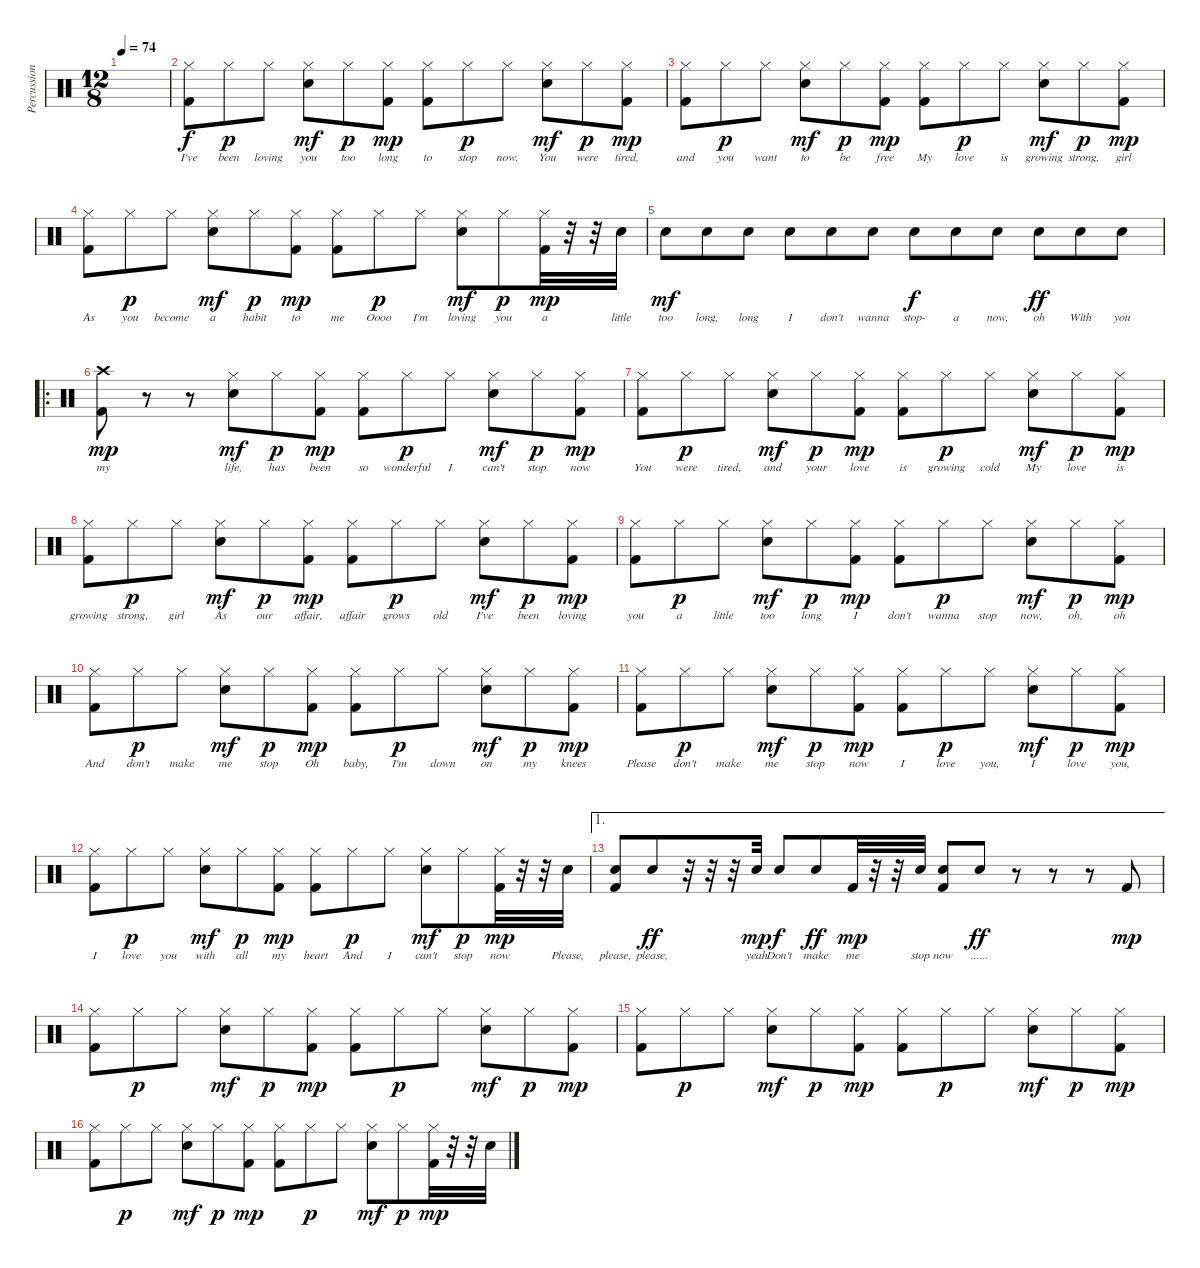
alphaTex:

\track ("Percussions" "Percussion") {instrument percussion}
\staff {score}
\articulation defaults
\ts (12 8)
\tempo 74
\clef neutral
\ks c
|
("Hi-Hat (closed)" "Kick (hit) 2").8{lyrics (0 "I've") lyrics (1 "") lyrics (2 "") lyrics (3 "") lyrics (4 "")} "Hi-Hat (closed)".8{lyrics (0 "been") lyrics (1 "") lyrics (2 "") lyrics (3 "") lyrics (4 "") dy p} "Hi-Hat (closed)".8{lyrics (0 "loving") lyrics (1 "") lyrics (2 "") lyrics (3 "") lyrics (4 "")} ("Hi-Hat (closed)" "Snare (hit) 2").8{lyrics (0 "you") lyrics (1 "") lyrics (2 "") lyrics (3 "") lyrics (4 "") dy mf} "Hi-Hat (closed)".8{lyrics (0 "too") lyrics (1 "") lyrics (2 "") lyrics (3 "") lyrics (4 "") dy p} ("Hi-Hat (closed)" "Kick (hit) 2").8{lyrics (0 "long") lyrics (1 "") lyrics (2 "") lyrics (3 "") lyrics (4 "") dy mp} ("Hi-Hat (closed)" "Kick (hit) 2").8{lyrics (0 "to") lyrics (1 "") lyrics (2 "") lyrics (3 "") lyrics (4 "")} "Hi-Hat (closed)".8{lyrics (0 "stop") lyrics (1 "") lyrics (2 "") lyrics (3 "") lyrics (4 "") dy p} "Hi-Hat (closed)".8{lyrics (0 "now.") lyrics (1 "") lyrics (2 "") lyrics (3 "") lyrics (4 "")} ("Hi-Hat (closed)" "Snare (hit) 2").8{lyrics (0 "You") lyrics (1 "") lyrics (2 "") lyrics (3 "") lyrics (4 "") dy mf} "Hi-Hat (closed)".8{lyrics (0 "were") lyrics (1 "") lyrics (2 "") lyrics (3 "") lyrics (4 "") dy p} ("Hi-Hat (closed)" "Kick (hit) 2").8{lyrics (0 "tired,") lyrics (1 "") lyrics (2 "") lyrics (3 "") lyrics (4 "") dy mp} |
("Hi-Hat (closed)" "Kick (hit) 2").8{lyrics (0 "and") lyrics (1 "") lyrics (2 "") lyrics (3 "") lyrics (4 "")} "Hi-Hat (closed)".8{lyrics (0 "you") lyrics (1 "") lyrics (2 "") lyrics (3 "") lyrics (4 "") dy p} "Hi-Hat (closed)".8{lyrics (0 "want") lyrics (1 "") lyrics (2 "") lyrics (3 "") lyrics (4 "")} ("Hi-Hat (closed)" "Snare (hit) 2").8{lyrics (0 "to") lyrics (1 "") lyrics (2 "") lyrics (3 "") lyrics (4 "") dy mf} "Hi-Hat (closed)".8{lyrics (0 "be") lyrics (1 "") lyrics (2 "") lyrics (3 "") lyrics (4 "") dy p} ("Hi-Hat (closed)" "Kick (hit) 2").8{lyrics (0 "free") lyrics (1 "") lyrics (2 "") lyrics (3 "") lyrics (4 "") dy mp} ("Hi-Hat (closed)" "Kick (hit) 2").8{lyrics (0 "My") lyrics (1 "") lyrics (2 "") lyrics (3 "") lyrics (4 "")} "Hi-Hat (closed)".8{lyrics (0 "love") lyrics (1 "") lyrics (2 "") lyrics (3 "") lyrics (4 "") dy p} "Hi-Hat (closed)".8{lyrics (0 "is") lyrics (1 "") lyrics (2 "") lyrics (3 "") lyrics (4 "")} ("Hi-Hat (closed)" "Snare (hit) 2").8{lyrics (0 "growing") lyrics (1 "") lyrics (2 "") lyrics (3 "") lyrics (4 "") dy mf} "Hi-Hat (closed)".8{lyrics (0 "strong,") lyrics (1 "") lyrics (2 "") lyrics (3 "") lyrics (4 "") dy p} ("Hi-Hat (closed)" "Kick (hit) 2").8{lyrics (0 "girl") lyrics (1 "") lyrics (2 "") lyrics (3 "") lyrics (4 "") dy mp} |
("Hi-Hat (closed)" "Kick (hit) 2").8{lyrics (0 "As") lyrics (1 "") lyrics (2 "") lyrics (3 "") lyrics (4 "")} "Hi-Hat (closed)".8{lyrics (0 "you") lyrics (1 "") lyrics (2 "") lyrics (3 "") lyrics (4 "") dy p} "Hi-Hat (closed)".8{lyrics (0 "become") lyrics (1 "") lyrics (2 "") lyrics (3 "") lyrics (4 "")} ("Hi-Hat (closed)" "Snare (hit) 2").8{lyrics (0 "a") lyrics (1 "") lyrics (2 "") lyrics (3 "") lyrics (4 "") dy mf} "Hi-Hat (closed)".8{lyrics (0 "habit") lyrics (1 "") lyrics (2 "") lyrics (3 "") lyrics (4 "") dy p} ("Hi-Hat (closed)" "Kick (hit) 2").8{lyrics (0 "to") lyrics (1 "") lyrics (2 "") lyrics (3 "") lyrics (4 "") dy mp} ("Hi-Hat (closed)" "Kick (hit) 2").8{lyrics (0 "me") lyrics (1 "") lyrics (2 "") lyrics (3 "") lyrics (4 "")} "Hi-Hat (closed)".8{lyrics (0 "Oooo") lyrics (1 "") lyrics (2 "") lyrics (3 "") lyrics (4 "") dy p} "Hi-Hat (closed)".8{lyrics (0 "I'm") lyrics (1 "") lyrics (2 "") lyrics (3 "") lyrics (4 "")} ("Hi-Hat (closed)" "Snare (hit) 2").8{lyrics (0 "loving") lyrics (1 "") lyrics (2 "") lyrics (3 "") lyrics (4 "") dy mf} "Hi-Hat (closed)".8{lyrics (0 "you") lyrics (1 "") lyrics (2 "") lyrics (3 "") lyrics (4 "") dy p} ("Hi-Hat (closed)" "Kick (hit) 2").32{lyrics (0 "a") lyrics (1 "") lyrics (2 "") lyrics (3 "") lyrics (4 "") dy mp} r.32 r.32 "Snare (hit) 2".32{lyrics (0 "little") lyrics (1 "") lyrics (2 "") lyrics (3 "") lyrics (4 "")} |
"Snare (hit) 2".8{lyrics (0 "too") lyrics (1 "") lyrics (2 "") lyrics (3 "") lyrics (4 "") dy mf} "Snare (hit) 2".8{lyrics (0 "long,") lyrics (1 "") lyrics (2 "") lyrics (3 "") lyrics (4 "")} "Snare (hit) 2".8{lyrics (0 "long") lyrics (1 "") lyrics (2 "") lyrics (3 "") lyrics (4 "")} "Snare (hit) 2".8{lyrics (0 "I") lyrics (1 "") lyrics (2 "") lyrics (3 "") lyrics (4 "")} "Snare (hit) 2".8{lyrics (0 "don't") lyrics (1 "") lyrics (2 "") lyrics (3 "") lyrics (4 "")} "Snare (hit) 2".8{lyrics (0 "wanna") lyrics (1 "") lyrics (2 "") lyrics (3 "") lyrics (4 "")} "Snare (hit) 2".8{lyrics (0 "stop-") lyrics (1 "") lyrics (2 "") lyrics (3 "") lyrics (4 "") dy f} "Snare (hit) 2".8{lyrics (0 "a") lyrics (1 "") lyrics (2 "") lyrics (3 "") lyrics (4 "")} "Snare (hit) 2".8{lyrics (0 "now,") lyrics (1 "") lyrics (2 "") lyrics (3 "") lyrics (4 "")} "Snare (hit) 2".8{lyrics (0 "oh") lyrics (1 "") lyrics (2 "") lyrics (3 "") lyrics (4 "") dy ff} "Snare (hit) 2".8{lyrics (0 "With") lyrics (1 "") lyrics (2 "") lyrics (3 "") lyrics (4 "")} "Snare (hit) 2".8{lyrics (0 "you") lyrics (1 "") lyrics (2 "") lyrics (3 "") lyrics (4 "")} |
\ro
("Crash high (hit)" "Kick (hit) 2").8{lyrics (0 "my") lyrics (1 "") lyrics (2 "") lyrics (3 "") lyrics (4 "") dy mp} r.8 r.8 ("Hi-Hat (closed)" "Snare (hit) 2").8{lyrics (0 "life,") lyrics (1 "") lyrics (2 "") lyrics (3 "") lyrics (4 "") dy mf} "Hi-Hat (closed)".8{lyrics (0 "has") lyrics (1 "") lyrics (2 "") lyrics (3 "") lyrics (4 "") dy p} ("Hi-Hat (closed)" "Kick (hit) 2").8{lyrics (0 "been") lyrics (1 "") lyrics (2 "") lyrics (3 "") lyrics (4 "") dy mp} ("Hi-Hat (closed)" "Kick (hit) 2").8{lyrics (0 "so") lyrics (1 "") lyrics (2 "") lyrics (3 "") lyrics (4 "")} "Hi-Hat (closed)".8{lyrics (0 "wonderful") lyrics (1 "") lyrics (2 "") lyrics (3 "") lyrics (4 "") dy p} "Hi-Hat (closed)".8{lyrics (0 "I") lyrics (1 "") lyrics (2 "") lyrics (3 "") lyrics (4 "")} ("Hi-Hat (closed)" "Snare (hit) 2").8{lyrics (0 "can't") lyrics (1 "") lyrics (2 "") lyrics (3 "") lyrics (4 "") dy mf} "Hi-Hat (closed)".8{lyrics (0 "stop") lyrics (1 "") lyrics (2 "") lyrics (3 "") lyrics (4 "") dy p} ("Hi-Hat (closed)" "Kick (hit) 2").8{lyrics (0 "now") lyrics (1 "") lyrics (2 "") lyrics (3 "") lyrics (4 "") dy mp} |
("Hi-Hat (closed)" "Kick (hit) 2").8{lyrics (0 "You") lyrics (1 "") lyrics (2 "") lyrics (3 "") lyrics (4 "")} "Hi-Hat (closed)".8{lyrics (0 "were") lyrics (1 "") lyrics (2 "") lyrics (3 "") lyrics (4 "") dy p} "Hi-Hat (closed)".8{lyrics (0 "tired,") lyrics (1 "") lyrics (2 "") lyrics (3 "") lyrics (4 "")} ("Hi-Hat (closed)" "Snare (hit) 2").8{lyrics (0 "and") lyrics (1 "") lyrics (2 "") lyrics (3 "") lyrics (4 "") dy mf} "Hi-Hat (closed)".8{lyrics (0 "your") lyrics (1 "") lyrics (2 "") lyrics (3 "") lyrics (4 "") dy p} ("Hi-Hat (closed)" "Kick (hit) 2").8{lyrics (0 "love") lyrics (1 "") lyrics (2 "") lyrics (3 "") lyrics (4 "") dy mp} ("Hi-Hat (closed)" "Kick (hit) 2").8{lyrics (0 "is") lyrics (1 "") lyrics (2 "") lyrics (3 "") lyrics (4 "")} "Hi-Hat (closed)".8{lyrics (0 "growing") lyrics (1 "") lyrics (2 "") lyrics (3 "") lyrics (4 "") dy p} "Hi-Hat (closed)".8{lyrics (0 "cold") lyrics (1 "") lyrics (2 "") lyrics (3 "") lyrics (4 "")} ("Hi-Hat (closed)" "Snare (hit) 2").8{lyrics (0 "My") lyrics (1 "") lyrics (2 "") lyrics (3 "") lyrics (4 "") dy mf} "Hi-Hat (closed)".8{lyrics (0 "love") lyrics (1 "") lyrics (2 "") lyrics (3 "") lyrics (4 "") dy p} ("Hi-Hat (closed)" "Kick (hit) 2").8{lyrics (0 "is") lyrics (1 "") lyrics (2 "") lyrics (3 "") lyrics (4 "") dy mp} |
("Hi-Hat (closed)" "Kick (hit) 2").8{lyrics (0 "growing") lyrics (1 "") lyrics (2 "") lyrics (3 "") lyrics (4 "")} "Hi-Hat (closed)".8{lyrics (0 "strong,") lyrics (1 "") lyrics (2 "") lyrics (3 "") lyrics (4 "") dy p} "Hi-Hat (closed)".8{lyrics (0 "girl") lyrics (1 "") lyrics (2 "") lyrics (3 "") lyrics (4 "")} ("Hi-Hat (closed)" "Snare (hit) 2").8{lyrics (0 "As") lyrics (1 "") lyrics (2 "") lyrics (3 "") lyrics (4 "") dy mf} "Hi-Hat (closed)".8{lyrics (0 "our") lyrics (1 "") lyrics (2 "") lyrics (3 "") lyrics (4 "") dy p} ("Hi-Hat (closed)" "Kick (hit) 2").8{lyrics (0 "affair,") lyrics (1 "") lyrics (2 "") lyrics (3 "") lyrics (4 "") dy mp} ("Hi-Hat (closed)" "Kick (hit) 2").8{lyrics (0 "affair") lyrics (1 "") lyrics (2 "") lyrics (3 "") lyrics (4 "")} "Hi-Hat (closed)".8{lyrics (0 "grows") lyrics (1 "") lyrics (2 "") lyrics (3 "") lyrics (4 "") dy p} "Hi-Hat (closed)".8{lyrics (0 "old") lyrics (1 "") lyrics (2 "") lyrics (3 "") lyrics (4 "")} ("Hi-Hat (closed)" "Snare (hit) 2").8{lyrics (0 "I've") lyrics (1 "") lyrics (2 "") lyrics (3 "") lyrics (4 "") dy mf} "Hi-Hat (closed)".8{lyrics (0 "been") lyrics (1 "") lyrics (2 "") lyrics (3 "") lyrics (4 "") dy p} ("Hi-Hat (closed)" "Kick (hit) 2").8{lyrics (0 "loving") lyrics (1 "") lyrics (2 "") lyrics (3 "") lyrics (4 "") dy mp} |
("Hi-Hat (closed)" "Kick (hit) 2").8{lyrics (0 "you") lyrics (1 "") lyrics (2 "") lyrics (3 "") lyrics (4 "")} "Hi-Hat (closed)".8{lyrics (0 "a") lyrics (1 "") lyrics (2 "") lyrics (3 "") lyrics (4 "") dy p} "Hi-Hat (closed)".8{lyrics (0 "little") lyrics (1 "") lyrics (2 "") lyrics (3 "") lyrics (4 "")} ("Hi-Hat (closed)" "Snare (hit) 2").8{lyrics (0 "too") lyrics (1 "") lyrics (2 "") lyrics (3 "") lyrics (4 "") dy mf} "Hi-Hat (closed)".8{lyrics (0 "long") lyrics (1 "") lyrics (2 "") lyrics (3 "") lyrics (4 "") dy p} ("Hi-Hat (closed)" "Kick (hit) 2").8{lyrics (0 "I") lyrics (1 "") lyrics (2 "") lyrics (3 "") lyrics (4 "") dy mp} ("Hi-Hat (closed)" "Kick (hit) 2").8{lyrics (0 "don't") lyrics (1 "") lyrics (2 "") lyrics (3 "") lyrics (4 "")} "Hi-Hat (closed)".8{lyrics (0 "wanna") lyrics (1 "") lyrics (2 "") lyrics (3 "") lyrics (4 "") dy p} "Hi-Hat (closed)".8{lyrics (0 "stop") lyrics (1 "") lyrics (2 "") lyrics (3 "") lyrics (4 "")} ("Hi-Hat (closed)" "Snare (hit) 2").8{lyrics (0 "now,") lyrics (1 "") lyrics (2 "") lyrics (3 "") lyrics (4 "") dy mf} "Hi-Hat (closed)".8{lyrics (0 "oh,") lyrics (1 "") lyrics (2 "") lyrics (3 "") lyrics (4 "") dy p} ("Hi-Hat (closed)" "Kick (hit) 2").8{lyrics (0 "oh") lyrics (1 "") lyrics (2 "") lyrics (3 "") lyrics (4 "") dy mp} |
("Hi-Hat (closed)" "Kick (hit) 2").8{lyrics (0 "And") lyrics (1 "") lyrics (2 "") lyrics (3 "") lyrics (4 "")} "Hi-Hat (closed)".8{lyrics (0 "don't") lyrics (1 "") lyrics (2 "") lyrics (3 "") lyrics (4 "") dy p} "Hi-Hat (closed)".8{lyrics (0 "make") lyrics (1 "") lyrics (2 "") lyrics (3 "") lyrics (4 "")} ("Hi-Hat (closed)" "Snare (hit) 2").8{lyrics (0 "me") lyrics (1 "") lyrics (2 "") lyrics (3 "") lyrics (4 "") dy mf} "Hi-Hat (closed)".8{lyrics (0 "stop") lyrics (1 "") lyrics (2 "") lyrics (3 "") lyrics (4 "") dy p} ("Hi-Hat (closed)" "Kick (hit) 2").8{lyrics (0 "Oh") lyrics (1 "") lyrics (2 "") lyrics (3 "") lyrics (4 "") dy mp} ("Hi-Hat (closed)" "Kick (hit) 2").8{lyrics (0 "baby,") lyrics (1 "") lyrics (2 "") lyrics (3 "") lyrics (4 "")} "Hi-Hat (closed)".8{lyrics (0 "I'm") lyrics (1 "") lyrics (2 "") lyrics (3 "") lyrics (4 "") dy p} "Hi-Hat (closed)".8{lyrics (0 "down") lyrics (1 "") lyrics (2 "") lyrics (3 "") lyrics (4 "")} ("Hi-Hat (closed)" "Snare (hit) 2").8{lyrics (0 "on") lyrics (1 "") lyrics (2 "") lyrics (3 "") lyrics (4 "") dy mf} "Hi-Hat (closed)".8{lyrics (0 "my") lyrics (1 "") lyrics (2 "") lyrics (3 "") lyrics (4 "") dy p} ("Hi-Hat (closed)" "Kick (hit) 2").8{lyrics (0 "knees") lyrics (1 "") lyrics (2 "") lyrics (3 "") lyrics (4 "") dy mp} |
("Hi-Hat (closed)" "Kick (hit) 2").8{lyrics (0 "Please") lyrics (1 "") lyrics (2 "") lyrics (3 "") lyrics (4 "")} "Hi-Hat (closed)".8{lyrics (0 "don't") lyrics (1 "") lyrics (2 "") lyrics (3 "") lyrics (4 "") dy p} "Hi-Hat (closed)".8{lyrics (0 "make") lyrics (1 "") lyrics (2 "") lyrics (3 "") lyrics (4 "")} ("Hi-Hat (closed)" "Snare (hit) 2").8{lyrics (0 "me") lyrics (1 "") lyrics (2 "") lyrics (3 "") lyrics (4 "") dy mf} "Hi-Hat (closed)".8{lyrics (0 "stop") lyrics (1 "") lyrics (2 "") lyrics (3 "") lyrics (4 "") dy p} ("Hi-Hat (closed)" "Kick (hit) 2").8{lyrics (0 "now") lyrics (1 "") lyrics (2 "") lyrics (3 "") lyrics (4 "") dy mp} ("Hi-Hat (closed)" "Kick (hit) 2").8{lyrics (0 "I") lyrics (1 "") lyrics (2 "") lyrics (3 "") lyrics (4 "")} "Hi-Hat (closed)".8{lyrics (0 "love") lyrics (1 "") lyrics (2 "") lyrics (3 "") lyrics (4 "") dy p} "Hi-Hat (closed)".8{lyrics (0 "you,") lyrics (1 "") lyrics (2 "") lyrics (3 "") lyrics (4 "")} ("Hi-Hat (closed)" "Snare (hit) 2").8{lyrics (0 "I") lyrics (1 "") lyrics (2 "") lyrics (3 "") lyrics (4 "") dy mf} "Hi-Hat (closed)".8{lyrics (0 "love") lyrics (1 "") lyrics (2 "") lyrics (3 "") lyrics (4 "") dy p} ("Hi-Hat (closed)" "Kick (hit) 2").8{lyrics (0 "you,") lyrics (1 "") lyrics (2 "") lyrics (3 "") lyrics (4 "") dy mp} |
("Hi-Hat (closed)" "Kick (hit) 2").8{lyrics (0 "I") lyrics (1 "") lyrics (2 "") lyrics (3 "") lyrics (4 "")} "Hi-Hat (closed)".8{lyrics (0 "love") lyrics (1 "") lyrics (2 "") lyrics (3 "") lyrics (4 "") dy p} "Hi-Hat (closed)".8{lyrics (0 "you") lyrics (1 "") lyrics (2 "") lyrics (3 "") lyrics (4 "")} ("Hi-Hat (closed)" "Snare (hit) 2").8{lyrics (0 "with") lyrics (1 "") lyrics (2 "") lyrics (3 "") lyrics (4 "") dy mf} "Hi-Hat (closed)".8{lyrics (0 "all") lyrics (1 "") lyrics (2 "") lyrics (3 "") lyrics (4 "") dy p} ("Hi-Hat (closed)" "Kick (hit) 2").8{lyrics (0 "my") lyrics (1 "") lyrics (2 "") lyrics (3 "") lyrics (4 "") dy mp} ("Hi-Hat (closed)" "Kick (hit) 2").8{lyrics (0 "heart") lyrics (1 "") lyrics (2 "") lyrics (3 "") lyrics (4 "")} "Hi-Hat (closed)".8{lyrics (0 "And") lyrics (1 "") lyrics (2 "") lyrics (3 "") lyrics (4 "") dy p} "Hi-Hat (closed)".8{lyrics (0 "I") lyrics (1 "") lyrics (2 "") lyrics (3 "") lyrics (4 "")} ("Hi-Hat (closed)" "Snare (hit) 2").8{lyrics (0 "can't") lyrics (1 "") lyrics (2 "") lyrics (3 "") lyrics (4 "") dy mf} "Hi-Hat (closed)".8{lyrics (0 "stop") lyrics (1 "") lyrics (2 "") lyrics (3 "") lyrics (4 "") dy p} ("Hi-Hat (closed)" "Kick (hit) 2").32{lyrics (0 "now") lyrics (1 "") lyrics (2 "") lyrics (3 "") lyrics (4 "") dy mp} r.32 r.32 "Snare (hit) 2".32{lyrics (0 "Please,") lyrics (1 "") lyrics (2 "") lyrics (3 "") lyrics (4 "")} |
\ae 1
("Snare (hit) 2" "Kick (hit) 2").8{lyrics (0 "please,") lyrics (1 "") lyrics (2 "") lyrics (3 "") lyrics (4 "")} "Snare (hit) 2".8{lyrics (0 "please,") lyrics (1 "") lyrics (2 "") lyrics (3 "") lyrics (4 "") dy ff} r.32 r.32 r.32 "Snare (hit) 2".32{lyrics (0 "yeah") lyrics (1 "") lyrics (2 "") lyrics (3 "") lyrics (4 "") dy mp} "Snare (hit) 2".8{lyrics (0 "Don't") lyrics (1 "") lyrics (2 "") lyrics (3 "") lyrics (4 "") dy f} "Snare (hit) 2".8{lyrics (0 "make") lyrics (1 "") lyrics (2 "") lyrics (3 "") lyrics (4 "") dy ff} "Kick (hit) 2".32{lyrics (0 "me") lyrics (1 "") lyrics (2 "") lyrics (3 "") lyrics (4 "") dy mp} r.32 r.32 "Snare (hit) 2".32{lyrics (0 "stop") lyrics (1 "") lyrics (2 "") lyrics (3 "") lyrics (4 "")} ("Snare (hit) 2" "Kick (hit) 2").8{lyrics (0 "now") lyrics (1 "") lyrics (2 "") lyrics (3 "") lyrics (4 "")} "Snare (hit) 2".8{lyrics (0 "......") lyrics (1 "") lyrics (2 "") lyrics (3 "") lyrics (4 "") dy ff} r.8 r.8 r.8 "Kick (hit) 2".8{dy mp} |
("Hi-Hat (closed)" "Kick (hit) 2").8 "Hi-Hat (closed)".8{dy p} "Hi-Hat (closed)".8 ("Hi-Hat (closed)" "Snare (hit) 2").8{dy mf} "Hi-Hat (closed)".8{dy p} ("Hi-Hat (closed)" "Kick (hit) 2").8{dy mp} ("Hi-Hat (closed)" "Kick (hit) 2").8 "Hi-Hat (closed)".8{dy p} "Hi-Hat (closed)".8 ("Hi-Hat (closed)" "Snare (hit) 2").8{dy mf} "Hi-Hat (closed)".8{dy p} ("Hi-Hat (closed)" "Kick (hit) 2").8{dy mp} |
("Hi-Hat (closed)" "Kick (hit) 2").8 "Hi-Hat (closed)".8{dy p} "Hi-Hat (closed)".8 ("Hi-Hat (closed)" "Snare (hit) 2").8{dy mf} "Hi-Hat (closed)".8{dy p} ("Hi-Hat (closed)" "Kick (hit) 2").8{dy mp} ("Hi-Hat (closed)" "Kick (hit) 2").8 "Hi-Hat (closed)".8{dy p} "Hi-Hat (closed)".8 ("Hi-Hat (closed)" "Snare (hit) 2").8{dy mf} "Hi-Hat (closed)".8{dy p} ("Hi-Hat (closed)" "Kick (hit) 2").8{dy mp} |
("Hi-Hat (closed)" "Kick (hit) 2").8 "Hi-Hat (closed)".8{dy p} "Hi-Hat (closed)".8 ("Hi-Hat (closed)" "Snare (hit) 2").8{dy mf} "Hi-Hat (closed)".8{dy p} ("Hi-Hat (closed)" "Kick (hit) 2").8{dy mp} ("Hi-Hat (closed)" "Kick (hit) 2").8 "Hi-Hat (closed)".8{dy p} "Hi-Hat (closed)".8 ("Hi-Hat (closed)" "Snare (hit) 2").8{dy mf} "Hi-Hat (closed)".8{dy p} ("Hi-Hat (closed)" "Kick (hit) 2").32{dy mp} r.32 r.32 "Snare (hit) 2".32
